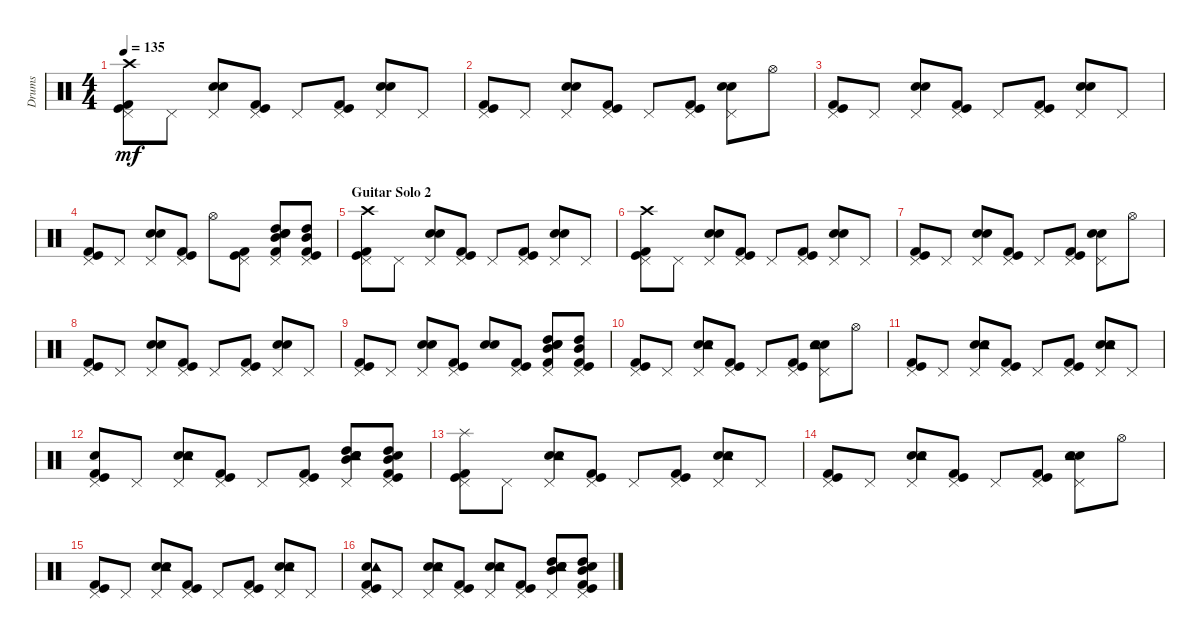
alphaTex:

\track ("Drums" "Drums") {instrument percussion}
\staff {score}
\articulation defaults
\ts (4 4)
\tempo 135
\clef neutral
\ks c
("Crash high (hit)" "Kick (hit) 2" "Pedal Hi-Hat (hit)" "Kick (hit)").8{dy mf} "Pedal Hi-Hat (hit)".8 ("Snare (hit) 2" "Electric Snare (hit)" "Pedal Hi-Hat (hit)").8 ("Kick (hit)" "Kick (hit) 2" "Pedal Hi-Hat (hit)").8 "Pedal Hi-Hat (hit)".8 ("Kick (hit) 2" "Pedal Hi-Hat (hit)" "Kick (hit)").8 ("Electric Snare (hit)" "Pedal Hi-Hat (hit)" "Snare (hit) 2").8 "Pedal Hi-Hat (hit)".8 |
("Pedal Hi-Hat (hit)" "Kick (hit)" "Kick (hit) 2").8 "Pedal Hi-Hat (hit)".8 ("Electric Snare (hit)" "Snare (hit) 2" "Pedal Hi-Hat (hit)").8 ("Pedal Hi-Hat (hit)" "Kick (hit)" "Kick (hit) 2").8 "Pedal Hi-Hat (hit)".8 ("Pedal Hi-Hat (hit)" "Kick (hit)" "Kick (hit) 2").8 ("Electric Snare (hit)" "Pedal Hi-Hat (hit)" "Snare (hit) 2").8 "Hi-Hat (open)".8 |
("Pedal Hi-Hat (hit)" "Kick (hit)" "Kick (hit) 2").8 "Pedal Hi-Hat (hit)".8 ("Pedal Hi-Hat (hit)" "Snare (hit) 2" "Electric Snare (hit)").8 ("Pedal Hi-Hat (hit)" "Kick (hit)" "Kick (hit) 2").8 "Pedal Hi-Hat (hit)".8 ("Pedal Hi-Hat (hit)" "Kick (hit)" "Kick (hit) 2").8 ("Pedal Hi-Hat (hit)" "Snare (hit) 2" "Electric Snare (hit)").8 "Pedal Hi-Hat (hit)".8 |
("Pedal Hi-Hat (hit)" "Kick (hit) 2" "Kick (hit)").8 "Pedal Hi-Hat (hit)".8 ("Pedal Hi-Hat (hit)" "Electric Snare (hit)" "Snare (hit) 2").8 ("Kick (hit)" "Kick (hit) 2" "Pedal Hi-Hat (hit)").8 "Hi-Hat (open)".8 ("Pedal Hi-Hat (hit)" "Kick (hit)" "Kick (hit) 2").8 ("Snare (hit) 2" "Electric Snare (hit)" "Pedal Hi-Hat (hit)" "Kick (hit) 2" "Mid Tom (hit)" "High Tom (hit)").8 ("Kick (hit) 2" "Pedal Hi-Hat (hit)" "Kick (hit)" "Mid Tom (hit)" "High Tom (hit)").8 |
\section ("" "Guitar Solo 2")
("Crash high (hit)" "Kick (hit) 2" "Pedal Hi-Hat (hit)" "Kick (hit)").8 "Pedal Hi-Hat (hit)".8 ("Snare (hit) 2" "Electric Snare (hit)" "Pedal Hi-Hat (hit)").8 ("Kick (hit)" "Kick (hit) 2" "Pedal Hi-Hat (hit)").8 "Pedal Hi-Hat (hit)".8 ("Kick (hit) 2" "Pedal Hi-Hat (hit)" "Kick (hit)").8 ("Electric Snare (hit)" "Pedal Hi-Hat (hit)" "Snare (hit) 2").8 "Pedal Hi-Hat (hit)".8 |
("Crash high (hit)" "Kick (hit) 2" "Pedal Hi-Hat (hit)" "Kick (hit)").8 "Pedal Hi-Hat (hit)".8 ("Snare (hit) 2" "Electric Snare (hit)" "Pedal Hi-Hat (hit)").8 ("Kick (hit)" "Kick (hit) 2" "Pedal Hi-Hat (hit)").8 "Pedal Hi-Hat (hit)".8 ("Kick (hit) 2" "Pedal Hi-Hat (hit)" "Kick (hit)").8 ("Electric Snare (hit)" "Pedal Hi-Hat (hit)" "Snare (hit) 2").8 "Pedal Hi-Hat (hit)".8 |
("Pedal Hi-Hat (hit)" "Kick (hit)" "Kick (hit) 2").8 "Pedal Hi-Hat (hit)".8 ("Electric Snare (hit)" "Snare (hit) 2" "Pedal Hi-Hat (hit)").8 ("Pedal Hi-Hat (hit)" "Kick (hit)" "Kick (hit) 2").8 "Pedal Hi-Hat (hit)".8 ("Pedal Hi-Hat (hit)" "Kick (hit)" "Kick (hit) 2").8 ("Electric Snare (hit)" "Pedal Hi-Hat (hit)" "Snare (hit) 2").8 "Hi-Hat (open)".8 |
("Pedal Hi-Hat (hit)" "Kick (hit)" "Kick (hit) 2").8 "Pedal Hi-Hat (hit)".8 ("Pedal Hi-Hat (hit)" "Snare (hit) 2" "Electric Snare (hit)").8 ("Pedal Hi-Hat (hit)" "Kick (hit)" "Kick (hit) 2").8 "Pedal Hi-Hat (hit)".8 ("Pedal Hi-Hat (hit)" "Kick (hit)" "Kick (hit) 2").8 ("Pedal Hi-Hat (hit)" "Snare (hit) 2" "Electric Snare (hit)").8 "Pedal Hi-Hat (hit)".8 |
("Kick (hit)" "Kick (hit) 2" "Pedal Hi-Hat (hit)").8 "Pedal Hi-Hat (hit)".8 ("Electric Snare (hit)" "Pedal Hi-Hat (hit)" "Snare (hit) 2").8 ("Kick (hit) 2" "Pedal Hi-Hat (hit)" "Kick (hit)").8 ("Snare (hit) 2" "Electric Snare (hit)").8 ("Kick (hit) 2" "Kick (hit)" "Pedal Hi-Hat (hit)").8 ("Electric Snare (hit)" "Pedal Hi-Hat (hit)" "High Tom (hit)" "Kick (hit) 2" "Mid Tom (hit)" "Snare (hit) 2").8 ("Pedal Hi-Hat (hit)" "Kick (hit)" "Kick (hit) 2" "Mid Tom (hit)" "High Tom (hit)").8 |
("Kick (hit)" "Kick (hit) 2" "Pedal Hi-Hat (hit)").8 "Pedal Hi-Hat (hit)".8 ("Snare (hit) 2" "Pedal Hi-Hat (hit)" "Electric Snare (hit)" "Tambourine (hit)").8 ("Pedal Hi-Hat (hit)" "Kick (hit)" "Kick (hit) 2").8 "Pedal Hi-Hat (hit)".8 ("Kick (hit)" "Pedal Hi-Hat (hit)" "Kick (hit) 2").8 ("Pedal Hi-Hat (hit)" "Snare (hit) 2" "Electric Snare (hit)" "Tambourine (hit)").8 "Hi-Hat (open)".8 |
("Pedal Hi-Hat (hit)" "Kick (hit)" "Kick (hit) 2").8 "Pedal Hi-Hat (hit)".8 ("Snare (hit) 2" "Pedal Hi-Hat (hit)" "Tambourine (hit)" "Electric Snare (hit)").8 ("Kick (hit) 2" "Kick (hit)" "Pedal Hi-Hat (hit)").8 "Pedal Hi-Hat (hit)".8 ("Kick (hit) 2" "Kick (hit)" "Pedal Hi-Hat (hit)").8 ("Electric Snare (hit)" "Pedal Hi-Hat (hit)" "Snare (hit) 2" "Tambourine (hit)").8 "Pedal Hi-Hat (hit)".8 |
("Kick (hit) 2" "Kick (hit)" "Pedal Hi-Hat (hit)" "Electric Snare (hit)").8 "Pedal Hi-Hat (hit)".8 ("Electric Snare (hit)" "Pedal Hi-Hat (hit)" "Snare (hit) 2" "Tambourine (hit)").8 ("Pedal Hi-Hat (hit)" "Kick (hit)" "Kick (hit) 2").8 "Pedal Hi-Hat (hit)".8 ("Pedal Hi-Hat (hit)" "Kick (hit) 2" "Kick (hit)").8 ("Pedal Hi-Hat (hit)" "Electric Snare (hit)" "Snare (hit) 2" "Tambourine (hit)" "Mid Tom (hit)" "High Tom (hit)").8 ("Kick (hit) 2" "Pedal Hi-Hat (hit)" "Kick (hit)" "Electric Snare (hit)" "Mid Tom (hit)" "High Tom (hit)").8 |
("Splash (hit)" "Pedal Hi-Hat (hit)" "Kick (hit)" "Kick (hit) 2").8 "Pedal Hi-Hat (hit)".8 ("Electric Snare (hit)" "Snare (hit) 2" "Pedal Hi-Hat (hit)" "Tambourine (hit)").8 ("Pedal Hi-Hat (hit)" "Kick (hit) 2" "Kick (hit)").8 "Pedal Hi-Hat (hit)".8 ("Kick (hit)" "Kick (hit) 2" "Pedal Hi-Hat (hit)").8 ("Pedal Hi-Hat (hit)" "Snare (hit) 2" "Electric Snare (hit)" "Tambourine (hit)").8 "Pedal Hi-Hat (hit)".8 |
("Kick (hit)" "Kick (hit) 2" "Pedal Hi-Hat (hit)").8 "Pedal Hi-Hat (hit)".8 ("Snare (hit) 2" "Pedal Hi-Hat (hit)" "Electric Snare (hit)" "Tambourine (hit)").8 ("Pedal Hi-Hat (hit)" "Kick (hit)" "Kick (hit) 2").8 "Pedal Hi-Hat (hit)".8 ("Kick (hit)" "Pedal Hi-Hat (hit)" "Kick (hit) 2").8 ("Pedal Hi-Hat (hit)" "Snare (hit) 2" "Electric Snare (hit)" "Tambourine (hit)").8 "Hi-Hat (open)".8 |
("Kick (hit) 2" "Kick (hit)" "Pedal Hi-Hat (hit)").8 "Pedal Hi-Hat (hit)".8 ("Electric Snare (hit)" "Snare (hit) 2" "Pedal Hi-Hat (hit)" "Tambourine (hit)").8 ("Kick (hit) 2" "Kick (hit)" "Pedal Hi-Hat (hit)").8 "Pedal Hi-Hat (hit)".8 ("Pedal Hi-Hat (hit)" "Kick (hit)" "Kick (hit) 2").8 ("Snare (hit) 2" "Electric Snare (hit)" "Pedal Hi-Hat (hit)" "Tambourine (hit)").8 "Pedal Hi-Hat (hit)".8 |
("Kick (hit) 2" "Kick (hit)" "Pedal Hi-Hat (hit)" "Electric Snare (hit)" "Tambourine (hit)").8 "Pedal Hi-Hat (hit)".8 ("Electric Snare (hit)" "Pedal Hi-Hat (hit)" "Snare (hit) 2" "Tambourine (hit)").8 ("Pedal Hi-Hat (hit)" "Kick (hit)" "Kick (hit) 2").8 ("Snare (hit) 2" "Pedal Hi-Hat (hit)" "Electric Snare (hit)" "Tambourine (hit)").8 ("Pedal Hi-Hat (hit)" "Kick (hit) 2" "Kick (hit)").8 ("Pedal Hi-Hat (hit)" "Electric Snare (hit)" "Snare (hit) 2" "Tambourine (hit)" "Mid Tom (hit)" "High Tom (hit)").8 ("Kick (hit) 2" "Pedal Hi-Hat (hit)" "Kick (hit)" "Electric Snare (hit)" "Mid Tom (hit)" "High Tom (hit)").8
